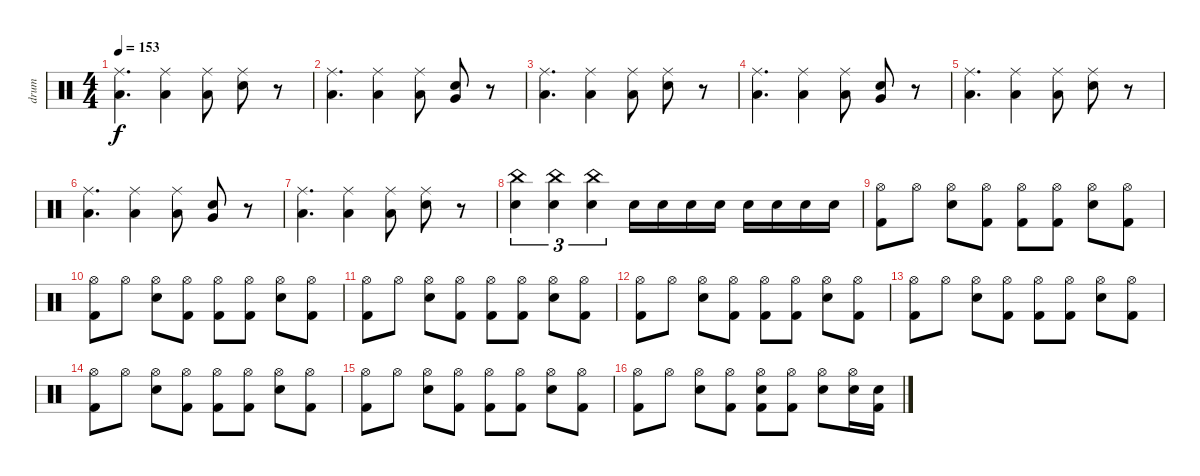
\track ("drum" "drum") {instrument percussion}
\staff {score}
\articulation defaults
\ts (4 4)
\tempo 153
\clef neutral
\ks c
("Ride (middle)" "Low Floor Tom (hit)").4{d dy f} ("Ride (middle)" "Low Floor Tom (hit)").4 ("Ride (middle)" "Low Floor Tom (hit)").8 ("Ride (middle)" "Snare (hit) 2").8 r.8 |
("Ride (middle)" "Low Floor Tom (hit)").4{d} ("Ride (middle)" "Low Floor Tom (hit)").4 ("Ride (middle)" "Low Floor Tom (hit)").8 ("Very Low Tom (hit)" "Snare (hit) 2").8 r.8 |
("Ride (middle)" "Low Floor Tom (hit)").4{d} ("Ride (middle)" "Low Floor Tom (hit)").4 ("Ride (middle)" "Low Floor Tom (hit)").8 ("Ride (middle)" "Snare (hit) 2").8 r.8 |
("Ride (middle)" "Low Floor Tom (hit)").4{d} ("Ride (middle)" "Low Floor Tom (hit)").4 ("Ride (middle)" "Low Floor Tom (hit)").8 ("Very Low Tom (hit)" "Snare (hit) 2").8 r.8 |
("Ride (middle)" "Low Floor Tom (hit)").4{d} ("Ride (middle)" "Low Floor Tom (hit)").4 ("Ride (middle)" "Low Floor Tom (hit)").8 ("Ride (middle)" "Snare (hit) 2").8 r.8 |
("Ride (middle)" "Low Floor Tom (hit)").4{d} ("Ride (middle)" "Low Floor Tom (hit)").4 ("Ride (middle)" "Low Floor Tom (hit)").8 ("Very Low Tom (hit)" "Snare (hit) 2").8 r.8 |
("Ride (middle)" "Low Floor Tom (hit)").4{d} ("Ride (middle)" "Low Floor Tom (hit)").4 ("Ride (middle)" "Low Floor Tom (hit)").8 ("Ride (middle)" "Snare (hit) 2").8 r.8 |
("China (hit)" "Snare (hit) 2").4{tu (3 2)} ("China (hit)" "Snare (hit) 2").4{tu (3 2)} ("China (hit)" "Snare (hit) 2").4{tu (3 2)} "Snare (hit) 2".16 "Snare (hit) 2".16 "Snare (hit) 2".16 "Snare (hit) 2".16 "Snare (hit) 2".16 "Snare (hit) 2".16 "Snare (hit) 2".16 "Snare (hit) 2".16 |
\ks aminor
("Hi-Hat (open)" "Kick (hit) 2").8 "Hi-Hat (open)".8 ("Hi-Hat (open)" "Snare (hit) 2").8 ("Hi-Hat (open)" "Kick (hit) 2").8 ("Hi-Hat (open)" "Kick (hit) 2").8 ("Hi-Hat (open)" "Kick (hit) 2").8 ("Hi-Hat (open)" "Snare (hit) 2").8 ("Hi-Hat (open)" "Kick (hit) 2").8 |
("Hi-Hat (open)" "Kick (hit) 2").8 "Hi-Hat (open)".8 ("Hi-Hat (open)" "Snare (hit) 2").8 ("Hi-Hat (open)" "Kick (hit) 2").8 ("Hi-Hat (open)" "Kick (hit) 2").8 ("Hi-Hat (open)" "Kick (hit) 2").8 ("Hi-Hat (open)" "Snare (hit) 2").8 ("Hi-Hat (open)" "Kick (hit) 2").8 |
("Hi-Hat (open)" "Kick (hit) 2").8 "Hi-Hat (open)".8 ("Hi-Hat (open)" "Snare (hit) 2").8 ("Hi-Hat (open)" "Kick (hit) 2").8 ("Hi-Hat (open)" "Kick (hit) 2").8 ("Hi-Hat (open)" "Kick (hit) 2").8 ("Hi-Hat (open)" "Snare (hit) 2").8 ("Hi-Hat (open)" "Kick (hit) 2").8 |
("Hi-Hat (open)" "Kick (hit) 2").8 "Hi-Hat (open)".8 ("Hi-Hat (open)" "Snare (hit) 2").8 ("Hi-Hat (open)" "Kick (hit) 2").8 ("Hi-Hat (open)" "Kick (hit) 2").8 ("Hi-Hat (open)" "Kick (hit) 2").8 ("Hi-Hat (open)" "Snare (hit) 2").8 ("Hi-Hat (open)" "Kick (hit) 2").8 |
("Hi-Hat (open)" "Kick (hit) 2").8 "Hi-Hat (open)".8 ("Hi-Hat (open)" "Snare (hit) 2").8 ("Hi-Hat (open)" "Kick (hit) 2").8 ("Hi-Hat (open)" "Kick (hit) 2").8 ("Hi-Hat (open)" "Kick (hit) 2").8 ("Hi-Hat (open)" "Snare (hit) 2").8 ("Hi-Hat (open)" "Kick (hit) 2").8 |
("Hi-Hat (open)" "Kick (hit) 2").8 "Hi-Hat (open)".8 ("Hi-Hat (open)" "Snare (hit) 2").8 ("Hi-Hat (open)" "Kick (hit) 2").8 ("Hi-Hat (open)" "Kick (hit) 2").8 ("Hi-Hat (open)" "Kick (hit) 2").8 ("Hi-Hat (open)" "Snare (hit) 2").8 ("Hi-Hat (open)" "Kick (hit) 2").8 |
("Hi-Hat (open)" "Kick (hit) 2").8 "Hi-Hat (open)".8 ("Hi-Hat (open)" "Snare (hit) 2").8 ("Hi-Hat (open)" "Kick (hit) 2").8 ("Hi-Hat (open)" "Kick (hit) 2").8 ("Hi-Hat (open)" "Kick (hit) 2").8 ("Hi-Hat (open)" "Snare (hit) 2").8 ("Hi-Hat (open)" "Kick (hit) 2").8 |
("Hi-Hat (open)" "Kick (hit) 2").8 "Hi-Hat (open)".8 ("Hi-Hat (open)" "Snare (hit) 2").8 ("Hi-Hat (open)" "Kick (hit) 2").8 ("Hi-Hat (open)" "Snare (hit) 2" "Kick (hit) 2").8 ("Hi-Hat (open)" "Kick (hit) 2").8 ("Hi-Hat (open)" "Snare (hit) 2").8 ("Hi-Hat (open)" "Snare (hit) 2").16 ("Snare (hit) 2" "Kick (hit) 2").16
